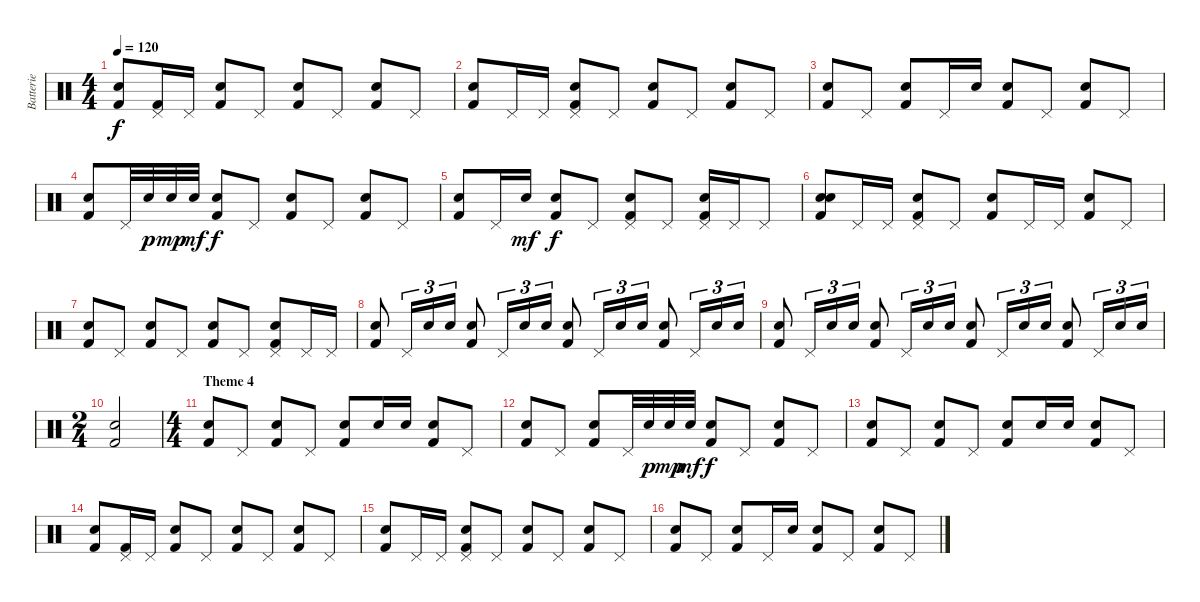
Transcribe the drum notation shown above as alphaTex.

\track ("Batterie" "Batterie") {instrument percussion}
\staff {score}
\articulation defaults
\ts (4 4)
\tempo 120
\clef neutral
\ks c
("Electric Snare (hit)" "Kick (hit) 2").8{dy f} ("Pedal Hi-Hat (hit)" "Kick (hit) 2").16 "Pedal Hi-Hat (hit)".16 ("Electric Snare (hit)" "Kick (hit) 2").8 "Pedal Hi-Hat (hit)".8 ("Electric Snare (hit)" "Kick (hit) 2").8 "Pedal Hi-Hat (hit)".8 ("Electric Snare (hit)" "Kick (hit) 2").8 "Pedal Hi-Hat (hit)".8 |
("Electric Snare (hit)" "Kick (hit) 2").8 "Pedal Hi-Hat (hit)".16 "Pedal Hi-Hat (hit)".16 ("Pedal Hi-Hat (hit)" "Electric Snare (hit)" "Kick (hit) 2").8 "Pedal Hi-Hat (hit)".8 ("Electric Snare (hit)" "Kick (hit) 2").8 "Pedal Hi-Hat (hit)".8 ("Electric Snare (hit)" "Kick (hit) 2").8 "Pedal Hi-Hat (hit)".8 |
("Electric Snare (hit)" "Kick (hit) 2").8 "Pedal Hi-Hat (hit)".8 ("Electric Snare (hit)" "Kick (hit) 2").8 "Pedal Hi-Hat (hit)".16 "Electric Snare (hit)".16 ("Electric Snare (hit)" "Kick (hit) 2").8 "Pedal Hi-Hat (hit)".8 ("Electric Snare (hit)" "Kick (hit) 2").8 "Pedal Hi-Hat (hit)".8 |
("Electric Snare (hit)" "Kick (hit) 2").8 "Pedal Hi-Hat (hit)".32 "Electric Snare (hit)".32{dy p} "Electric Snare (hit)".32{dy mp} "Electric Snare (hit)".32{dy mf} ("Electric Snare (hit)" "Kick (hit) 2").8{dy f} "Pedal Hi-Hat (hit)".8 ("Electric Snare (hit)" "Kick (hit) 2").8 "Pedal Hi-Hat (hit)".8 ("Electric Snare (hit)" "Kick (hit) 2").8 "Pedal Hi-Hat (hit)".8 |
("Electric Snare (hit)" "Kick (hit) 2").8 "Pedal Hi-Hat (hit)".16 "Electric Snare (hit)".16{dy mf} ("Electric Snare (hit)" "Kick (hit) 2").8{dy f} "Pedal Hi-Hat (hit)".8 ("Pedal Hi-Hat (hit)" "Electric Snare (hit)" "Kick (hit) 2").8 "Pedal Hi-Hat (hit)".8 ("Pedal Hi-Hat (hit)" "Electric Snare (hit)" "Kick (hit) 2").16 "Pedal Hi-Hat (hit)".16 "Pedal Hi-Hat (hit)".8 |
("Electric Snare (hit)" "Electric Snare (hit)" "Kick (hit) 2").8 "Pedal Hi-Hat (hit)".16 "Pedal Hi-Hat (hit)".16 ("Pedal Hi-Hat (hit)" "Electric Snare (hit)" "Kick (hit) 2").8 "Pedal Hi-Hat (hit)".8 ("Electric Snare (hit)" "Kick (hit) 2").8 "Pedal Hi-Hat (hit)".16 "Pedal Hi-Hat (hit)".16 ("Electric Snare (hit)" "Kick (hit) 2").8 "Pedal Hi-Hat (hit)".8 |
("Electric Snare (hit)" "Kick (hit) 2").8 "Pedal Hi-Hat (hit)".8 ("Electric Snare (hit)" "Kick (hit) 2").8 "Pedal Hi-Hat (hit)".8 ("Electric Snare (hit)" "Kick (hit) 2").8 "Pedal Hi-Hat (hit)".8 ("Pedal Hi-Hat (hit)" "Electric Snare (hit)" "Kick (hit) 2").8 "Pedal Hi-Hat (hit)".16 "Pedal Hi-Hat (hit)".16 |
("Electric Snare (hit)" "Kick (hit) 2").8 "Pedal Hi-Hat (hit)".16{tu (3 2)} "Electric Snare (hit)".16{tu (3 2)} "Electric Snare (hit)".16{tu (3 2)} ("Electric Snare (hit)" "Kick (hit) 2").8 "Pedal Hi-Hat (hit)".16{tu (3 2)} "Electric Snare (hit)".16{tu (3 2)} "Electric Snare (hit)".16{tu (3 2)} ("Electric Snare (hit)" "Kick (hit) 2").8 "Pedal Hi-Hat (hit)".16{tu (3 2)} "Electric Snare (hit)".16{tu (3 2)} "Electric Snare (hit)".16{tu (3 2)} ("Electric Snare (hit)" "Kick (hit) 2").8 "Pedal Hi-Hat (hit)".16{tu (3 2)} "Electric Snare (hit)".16{tu (3 2)} "Electric Snare (hit)".16{tu (3 2)} |
("Electric Snare (hit)" "Kick (hit) 2").8 "Pedal Hi-Hat (hit)".16{tu (3 2)} "Electric Snare (hit)".16{tu (3 2)} "Electric Snare (hit)".16{tu (3 2)} ("Electric Snare (hit)" "Kick (hit) 2").8 "Pedal Hi-Hat (hit)".16{tu (3 2)} "Electric Snare (hit)".16{tu (3 2)} "Electric Snare (hit)".16{tu (3 2)} ("Electric Snare (hit)" "Kick (hit) 2").8 "Pedal Hi-Hat (hit)".16{tu (3 2)} "Electric Snare (hit)".16{tu (3 2)} "Electric Snare (hit)".16{tu (3 2)} ("Electric Snare (hit)" "Kick (hit) 2").8 "Pedal Hi-Hat (hit)".16{tu (3 2)} "Electric Snare (hit)".16{tu (3 2)} "Electric Snare (hit)".16{tu (3 2)} |
\ts (2 4)
("Electric Snare (hit)" "Kick (hit) 2").2 |
\ts (4 4)
\section ("" "Theme 4")
("Electric Snare (hit)" "Kick (hit) 2").8 "Pedal Hi-Hat (hit)".8 ("Electric Snare (hit)" "Kick (hit) 2").8 "Pedal Hi-Hat (hit)".8 ("Electric Snare (hit)" "Kick (hit) 2").8 "Electric Snare (hit)".16 "Electric Snare (hit)".16 ("Electric Snare (hit)" "Kick (hit) 2").8 "Pedal Hi-Hat (hit)".8 |
("Electric Snare (hit)" "Kick (hit) 2").8 "Pedal Hi-Hat (hit)".8 ("Electric Snare (hit)" "Kick (hit) 2").8 "Pedal Hi-Hat (hit)".32 "Electric Snare (hit)".32{dy p} "Electric Snare (hit)".32{dy mp} "Electric Snare (hit)".32{dy mf} ("Electric Snare (hit)" "Kick (hit) 2").8{dy f} "Pedal Hi-Hat (hit)".8 ("Electric Snare (hit)" "Kick (hit) 2").8 "Pedal Hi-Hat (hit)".8 |
("Electric Snare (hit)" "Kick (hit) 2").8 "Pedal Hi-Hat (hit)".8 ("Electric Snare (hit)" "Kick (hit) 2").8 "Pedal Hi-Hat (hit)".8 ("Electric Snare (hit)" "Kick (hit) 2").8 "Electric Snare (hit)".16 "Electric Snare (hit)".16 ("Electric Snare (hit)" "Kick (hit) 2").8 "Pedal Hi-Hat (hit)".8 |
("Electric Snare (hit)" "Kick (hit) 2").8 ("Pedal Hi-Hat (hit)" "Kick (hit) 2").16 "Pedal Hi-Hat (hit)".16 ("Electric Snare (hit)" "Kick (hit) 2").8 "Pedal Hi-Hat (hit)".8 ("Electric Snare (hit)" "Kick (hit) 2").8 "Pedal Hi-Hat (hit)".8 ("Electric Snare (hit)" "Kick (hit) 2").8 "Pedal Hi-Hat (hit)".8 |
("Electric Snare (hit)" "Kick (hit) 2").8 "Pedal Hi-Hat (hit)".16 "Pedal Hi-Hat (hit)".16 ("Pedal Hi-Hat (hit)" "Electric Snare (hit)" "Kick (hit) 2").8 "Pedal Hi-Hat (hit)".8 ("Electric Snare (hit)" "Kick (hit) 2").8 "Pedal Hi-Hat (hit)".8 ("Electric Snare (hit)" "Kick (hit) 2").8 "Pedal Hi-Hat (hit)".8 |
("Electric Snare (hit)" "Kick (hit) 2").8 "Pedal Hi-Hat (hit)".8 ("Electric Snare (hit)" "Kick (hit) 2").8 "Pedal Hi-Hat (hit)".16 "Electric Snare (hit)".16 ("Electric Snare (hit)" "Kick (hit) 2").8 "Pedal Hi-Hat (hit)".8 ("Electric Snare (hit)" "Kick (hit) 2").8 "Pedal Hi-Hat (hit)".8
